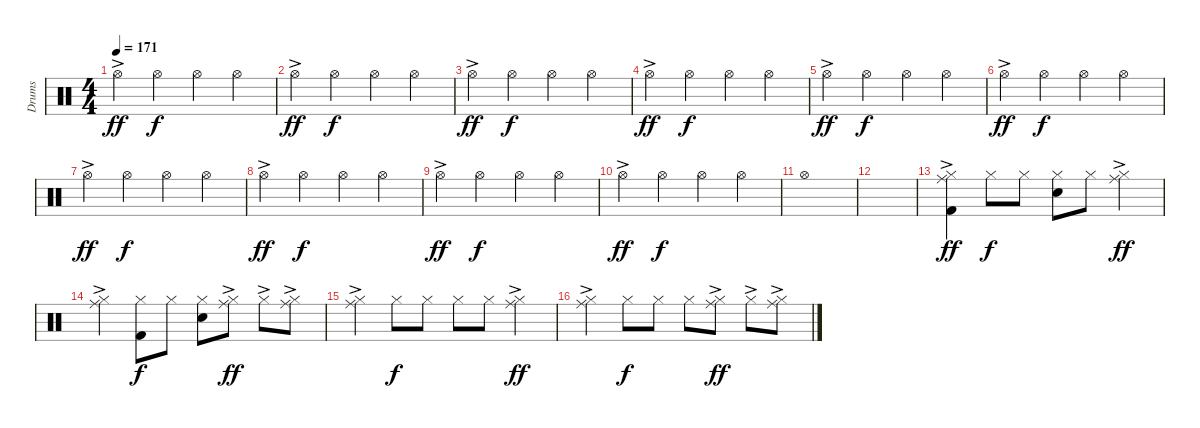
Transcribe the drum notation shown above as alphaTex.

\track ("Drums" "Drums") {instrument percussion}
\staff {score}
\articulation defaults
\ts (4 4)
\tempo 171
\clef neutral
\ks c "Hi-Hat (open)"{ac}.4{dy ff} "Hi-Hat (open)".4{dy f} "Hi-Hat (open)".4 "Hi-Hat (open)".4
|
"Hi-Hat (open)"{ac}.4{dy ff} "Hi-Hat (open)".4{dy f} "Hi-Hat (open)".4 "Hi-Hat (open)".4 |
"Hi-Hat (open)"{ac}.4{dy ff} "Hi-Hat (open)".4{dy f} "Hi-Hat (open)".4 "Hi-Hat (open)".4 |
"Hi-Hat (open)"{ac}.4{dy ff} "Hi-Hat (open)".4{dy f} "Hi-Hat (open)".4 "Hi-Hat (open)".4 |
"Hi-Hat (open)"{ac}.4{dy ff} "Hi-Hat (open)".4{dy f} "Hi-Hat (open)".4 "Hi-Hat (open)".4 |
"Hi-Hat (open)"{ac}.4{dy ff} "Hi-Hat (open)".4{dy f} "Hi-Hat (open)".4 "Hi-Hat (open)".4 |
"Hi-Hat (open)"{ac}.4{dy ff} "Hi-Hat (open)".4{dy f} "Hi-Hat (open)".4 "Hi-Hat (open)".4 |
"Hi-Hat (open)"{ac}.4{dy ff} "Hi-Hat (open)".4{dy f} "Hi-Hat (open)".4 "Hi-Hat (open)".4 |
"Hi-Hat (open)"{ac}.4{dy ff} "Hi-Hat (open)".4{dy f} "Hi-Hat (open)".4 "Hi-Hat (open)".4 |
"Hi-Hat (open)"{ac}.4{dy ff} "Hi-Hat (open)".4{dy f} "Hi-Hat (open)".4 "Hi-Hat (open)".4 |
"Hi-Hat (open)".1 |
|
("Hi-Hat (closed)"{ac} "Ride (middle)" "Kick (hit) 2").4{dy ff} "Hi-Hat (closed)".8{dy f} "Hi-Hat (closed)".8 ("Hi-Hat (closed)" "Snare (hit) 2").8 "Hi-Hat (closed)".8 ("Hi-Hat (closed)"{ac} "Ride (middle)").4{dy ff} |
("Hi-Hat (closed)"{ac} "Ride (middle)").4 ("Hi-Hat (closed)" "Kick (hit) 2").8{dy f} "Hi-Hat (closed)".8 ("Hi-Hat (closed)" "Snare (hit) 2").8 ("Hi-Hat (closed)"{ac} "Ride (middle)").8{dy ff} "Hi-Hat (closed)"{ac}.8 ("Hi-Hat (closed)"{ac} "Ride (middle)").8 |
("Hi-Hat (closed)"{ac} "Ride (middle)").4 "Hi-Hat (closed)".8{dy f} "Hi-Hat (closed)".8 "Hi-Hat (closed)".8 "Hi-Hat (closed)".8 ("Hi-Hat (closed)"{ac} "Ride (middle)").4{dy ff} |
("Hi-Hat (closed)"{ac} "Ride (middle)").4 "Hi-Hat (closed)".8{dy f} "Hi-Hat (closed)".8 "Hi-Hat (closed)".8 ("Hi-Hat (closed)"{ac} "Ride (middle)").8{dy ff} "Hi-Hat (closed)"{ac}.8 ("Hi-Hat (closed)"{ac} "Ride (middle)").8
